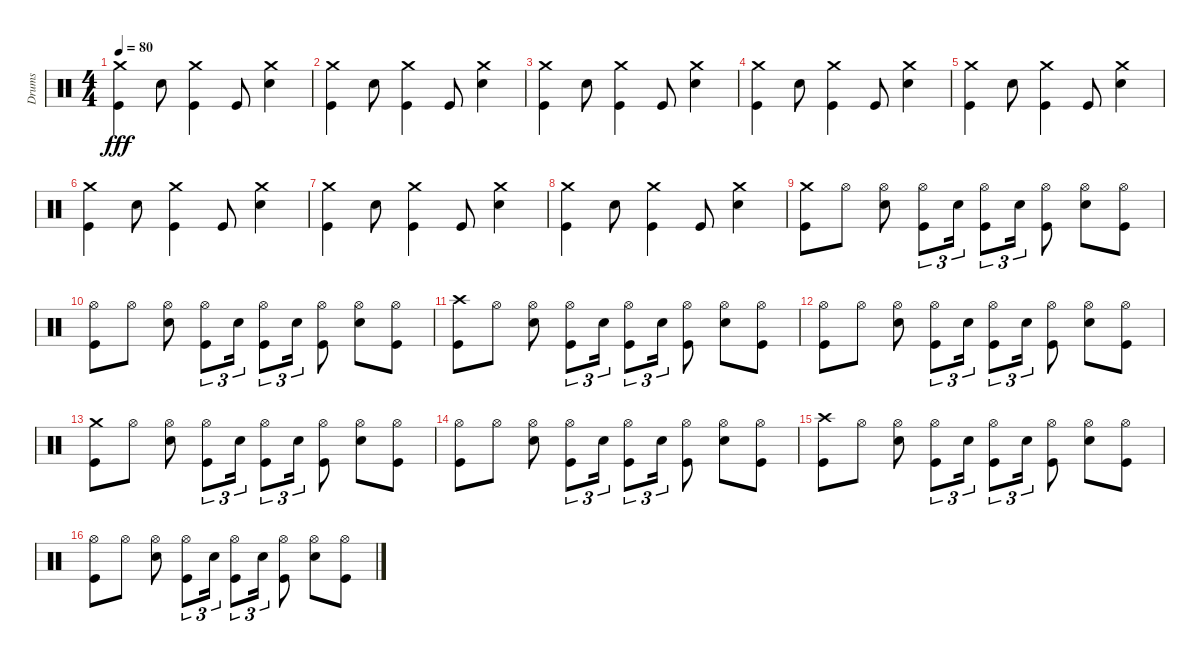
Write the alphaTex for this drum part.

\track ("Drums" "Drums") {instrument percussion}
\staff {score}
\articulation defaults
\ts (4 4)
\tempo 80
\clef neutral
\ks c
("Kick (hit)" "Crash medium (hit)").4{dy fff} "Snare (hit) 2".8 ("Kick (hit)" "Crash medium (hit)").4 "Kick (hit)".8 ("Snare (hit) 2" "Crash medium (hit)").4 |
("Kick (hit)" "Crash medium (hit)").4 "Snare (hit) 2".8 ("Kick (hit)" "Crash medium (hit)").4 "Kick (hit)".8 ("Snare (hit) 2" "Crash medium (hit)").4 |
("Kick (hit)" "Crash medium (hit)").4 "Snare (hit) 2".8 ("Kick (hit)" "Crash medium (hit)").4 "Kick (hit)".8 ("Snare (hit) 2" "Crash medium (hit)").4 |
("Kick (hit)" "Crash medium (hit)").4 "Snare (hit) 2".8 ("Kick (hit)" "Crash medium (hit)").4 "Kick (hit)".8 ("Snare (hit) 2" "Crash medium (hit)").4 |
("Kick (hit)" "Crash medium (hit)").4 "Snare (hit) 2".8 ("Kick (hit)" "Crash medium (hit)").4 "Kick (hit)".8 ("Snare (hit) 2" "Crash medium (hit)").4 |
("Kick (hit)" "Crash medium (hit)").4 "Snare (hit) 2".8 ("Kick (hit)" "Crash medium (hit)").4 "Kick (hit)".8 ("Snare (hit) 2" "Crash medium (hit)").4 |
("Kick (hit)" "Crash medium (hit)").4 "Snare (hit) 2".8 ("Kick (hit)" "Crash medium (hit)").4 "Kick (hit)".8 ("Snare (hit) 2" "Crash medium (hit)").4 |
("Kick (hit)" "Crash medium (hit)").4 "Snare (hit) 2".8 ("Kick (hit)" "Crash medium (hit)").4 "Kick (hit)".8 ("Snare (hit) 2" "Crash medium (hit)").4 |
("Kick (hit)" "Crash medium (hit)").8 "Hi-Hat (open)".8 ("Snare (hit) 2" "Hi-Hat (open)").8 ("Hi-Hat (open)" "Kick (hit)").8{tu (3 2)} "Snare (hit) 2".16{tu (3 2)} ("Kick (hit)" "Hi-Hat (open)").8{tu (3 2)} "Snare (hit) 2".16{tu (3 2)} ("Kick (hit)" "Hi-Hat (open)").8 ("Snare (hit) 2" "Hi-Hat (open)").8 ("Kick (hit)" "Hi-Hat (open)").8 |
("Kick (hit)" "Hi-Hat (open)").8 "Hi-Hat (open)".8 ("Snare (hit) 2" "Hi-Hat (open)").8 ("Hi-Hat (open)" "Kick (hit)").8{tu (3 2)} "Snare (hit) 2".16{tu (3 2)} ("Kick (hit)" "Hi-Hat (open)").8{tu (3 2)} "Snare (hit) 2".16{tu (3 2)} ("Kick (hit)" "Hi-Hat (open)").8 ("Snare (hit) 2" "Hi-Hat (open)").8 ("Kick (hit)" "Hi-Hat (open)").8 |
("Kick (hit)" "Crash high (hit)").8 "Hi-Hat (open)".8 ("Snare (hit) 2" "Hi-Hat (open)").8 ("Hi-Hat (open)" "Kick (hit)").8{tu (3 2)} "Snare (hit) 2".16{tu (3 2)} ("Kick (hit)" "Hi-Hat (open)").8{tu (3 2)} "Snare (hit) 2".16{tu (3 2)} ("Kick (hit)" "Hi-Hat (open)").8 ("Snare (hit) 2" "Hi-Hat (open)").8 ("Kick (hit)" "Hi-Hat (open)").8 |
("Kick (hit)" "Hi-Hat (open)").8 "Hi-Hat (open)".8 ("Snare (hit) 2" "Hi-Hat (open)").8 ("Hi-Hat (open)" "Kick (hit)").8{tu (3 2)} "Snare (hit) 2".16{tu (3 2)} ("Kick (hit)" "Hi-Hat (open)").8{tu (3 2)} "Snare (hit) 2".16{tu (3 2)} ("Kick (hit)" "Hi-Hat (open)").8 ("Snare (hit) 2" "Hi-Hat (open)").8 ("Kick (hit)" "Hi-Hat (open)").8 |
("Kick (hit)" "Crash medium (hit)").8 "Hi-Hat (open)".8 ("Snare (hit) 2" "Hi-Hat (open)").8 ("Hi-Hat (open)" "Kick (hit)").8{tu (3 2)} "Snare (hit) 2".16{tu (3 2)} ("Kick (hit)" "Hi-Hat (open)").8{tu (3 2)} "Snare (hit) 2".16{tu (3 2)} ("Kick (hit)" "Hi-Hat (open)").8 ("Snare (hit) 2" "Hi-Hat (open)").8 ("Kick (hit)" "Hi-Hat (open)").8 |
("Kick (hit)" "Hi-Hat (open)").8 "Hi-Hat (open)".8 ("Snare (hit) 2" "Hi-Hat (open)").8 ("Hi-Hat (open)" "Kick (hit)").8{tu (3 2)} "Snare (hit) 2".16{tu (3 2)} ("Kick (hit)" "Hi-Hat (open)").8{tu (3 2)} "Snare (hit) 2".16{tu (3 2)} ("Kick (hit)" "Hi-Hat (open)").8 ("Snare (hit) 2" "Hi-Hat (open)").8 ("Kick (hit)" "Hi-Hat (open)").8 |
("Kick (hit)" "Crash high (hit)").8 "Hi-Hat (open)".8 ("Snare (hit) 2" "Hi-Hat (open)").8 ("Hi-Hat (open)" "Kick (hit)").8{tu (3 2)} "Snare (hit) 2".16{tu (3 2)} ("Kick (hit)" "Hi-Hat (open)").8{tu (3 2)} "Snare (hit) 2".16{tu (3 2)} ("Kick (hit)" "Hi-Hat (open)").8 ("Snare (hit) 2" "Hi-Hat (open)").8 ("Kick (hit)" "Hi-Hat (open)").8 |
("Kick (hit)" "Hi-Hat (open)").8 "Hi-Hat (open)".8 ("Snare (hit) 2" "Hi-Hat (open)").8 ("Hi-Hat (open)" "Kick (hit)").8{tu (3 2)} "Snare (hit) 2".16{tu (3 2)} ("Kick (hit)" "Hi-Hat (open)").8{tu (3 2)} "Snare (hit) 2".16{tu (3 2)} ("Kick (hit)" "Hi-Hat (open)").8 ("Snare (hit) 2" "Hi-Hat (open)").8 ("Kick (hit)" "Hi-Hat (open)").8
